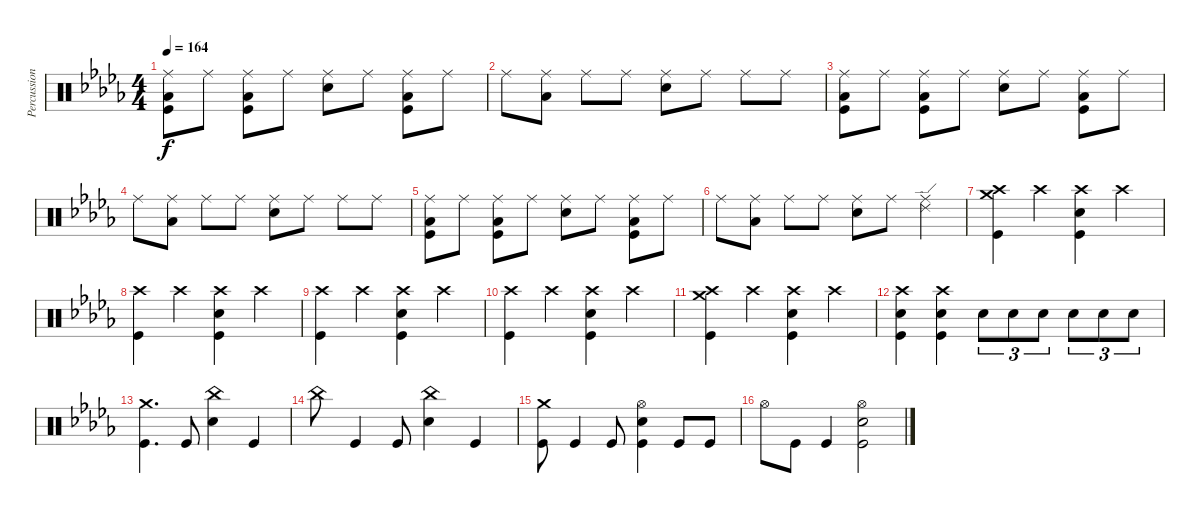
\track ("Percussion" "Percussion") {instrument percussion}
\staff {score}
\articulation defaults
\ts (4 4)
\tempo 164
\clef neutral
\ks db
("Ride (middle)" "Low Floor Tom (hit)" "Kick (hit)").8{dy f} "Ride (middle)".8 ("Ride (middle)" "Low Floor Tom (hit)" "Kick (hit)").8 "Ride (middle)".8 ("Ride (middle)" "Electric Snare (hit)").8 "Ride (middle)".8 ("Ride (middle)" "Low Floor Tom (hit)" "Kick (hit)").8 "Ride (middle)".8 |
"Ride (middle)".8 ("Ride (middle)" "Low Floor Tom (hit)").8 "Ride (middle)".8 "Ride (middle)".8 ("Ride (middle)" "Electric Snare (hit)").8 "Ride (middle)".8 "Ride (middle)".8 "Ride (middle)".8 |
("Ride (middle)" "Low Floor Tom (hit)" "Kick (hit)").8 "Ride (middle)".8 ("Ride (middle)" "Low Floor Tom (hit)" "Kick (hit)").8 "Ride (middle)".8 ("Ride (middle)" "Electric Snare (hit)").8 "Ride (middle)".8 ("Ride (middle)" "Low Floor Tom (hit)" "Kick (hit)").8 "Ride (middle)".8 |
"Ride (middle)".8 ("Ride (middle)" "Low Floor Tom (hit)").8 "Ride (middle)".8 "Ride (middle)".8 ("Ride (middle)" "Electric Snare (hit)").8 "Ride (middle)".8 "Ride (middle)".8 "Ride (middle)".8 |
("Ride (middle)" "Low Floor Tom (hit)" "Kick (hit)").8 "Ride (middle)".8 ("Ride (middle)" "Low Floor Tom (hit)" "Kick (hit)").8 "Ride (middle)".8 ("Ride (middle)" "Electric Snare (hit)").8 "Ride (middle)".8 ("Ride (middle)" "Low Floor Tom (hit)" "Kick (hit)").8 "Ride (middle)".8 |
"Ride (middle)".8 ("Ride (middle)" "Low Floor Tom (hit)").8 "Ride (middle)".8 "Ride (middle)".8 ("Ride (middle)" "Electric Snare (hit)").8 "Ride (middle)".8 ("Ride (middle)" "Ride (edge) 2").4 |
("Crash medium (hit)" "Crash high (hit)" "Kick (hit)").4 "Crash high (hit)".4 ("Crash high (hit)" "Electric Snare (hit)" "Kick (hit)").4 "Crash high (hit)".4 |
("Crash high (hit)" "Kick (hit)").4 "Crash high (hit)".4 ("Crash high (hit)" "Electric Snare (hit)" "Kick (hit)").4 "Crash high (hit)".4 |
("Crash high (hit)" "Kick (hit)").4 "Crash high (hit)".4 ("Crash high (hit)" "Electric Snare (hit)" "Kick (hit)").4 "Crash high (hit)".4 |
("Crash high (hit)" "Kick (hit)").4 "Crash high (hit)".4 ("Crash high (hit)" "Electric Snare (hit)" "Kick (hit)").4 "Crash high (hit)".4 |
("Crash medium (hit)" "Crash high (hit)" "Kick (hit)").4 "Crash high (hit)".4 ("Crash high (hit)" "Electric Snare (hit)" "Kick (hit)").4 "Crash high (hit)".4 |
("Crash high (hit)" "Electric Snare (hit)" "Kick (hit)").4 ("Crash high (hit)" "Electric Snare (hit)" "Kick (hit)").4 "Electric Snare (hit)".8{tu (3 2)} "Electric Snare (hit)".8{tu (3 2)} "Electric Snare (hit)".8{tu (3 2)} "Electric Snare (hit)".8{tu (3 2)} "Electric Snare (hit)".8{tu (3 2)} "Electric Snare (hit)".8{tu (3 2)} |
("Crash medium (hit)" "Kick (hit)").4{d} "Kick (hit)".8 ("China (hit)" "Electric Snare (hit)").4 "Kick (hit)".4 |
"China (hit)".8 "Kick (hit)".4 "Kick (hit)".8 ("China (hit)" "Electric Snare (hit)").4 "Kick (hit)".4 |
("Crash medium (hit)" "Kick (hit)").8 "Kick (hit)".4 "Kick (hit)".8 ("Hi-Hat (open)" "Electric Snare (hit)" "Kick (hit)").4 "Kick (hit)".8 "Kick (hit)".8 |
"Hi-Hat (open)".8 "Kick (hit)".8 "Kick (hit)".4 ("Hi-Hat (open)" "Electric Snare (hit)" "Kick (hit)").2
